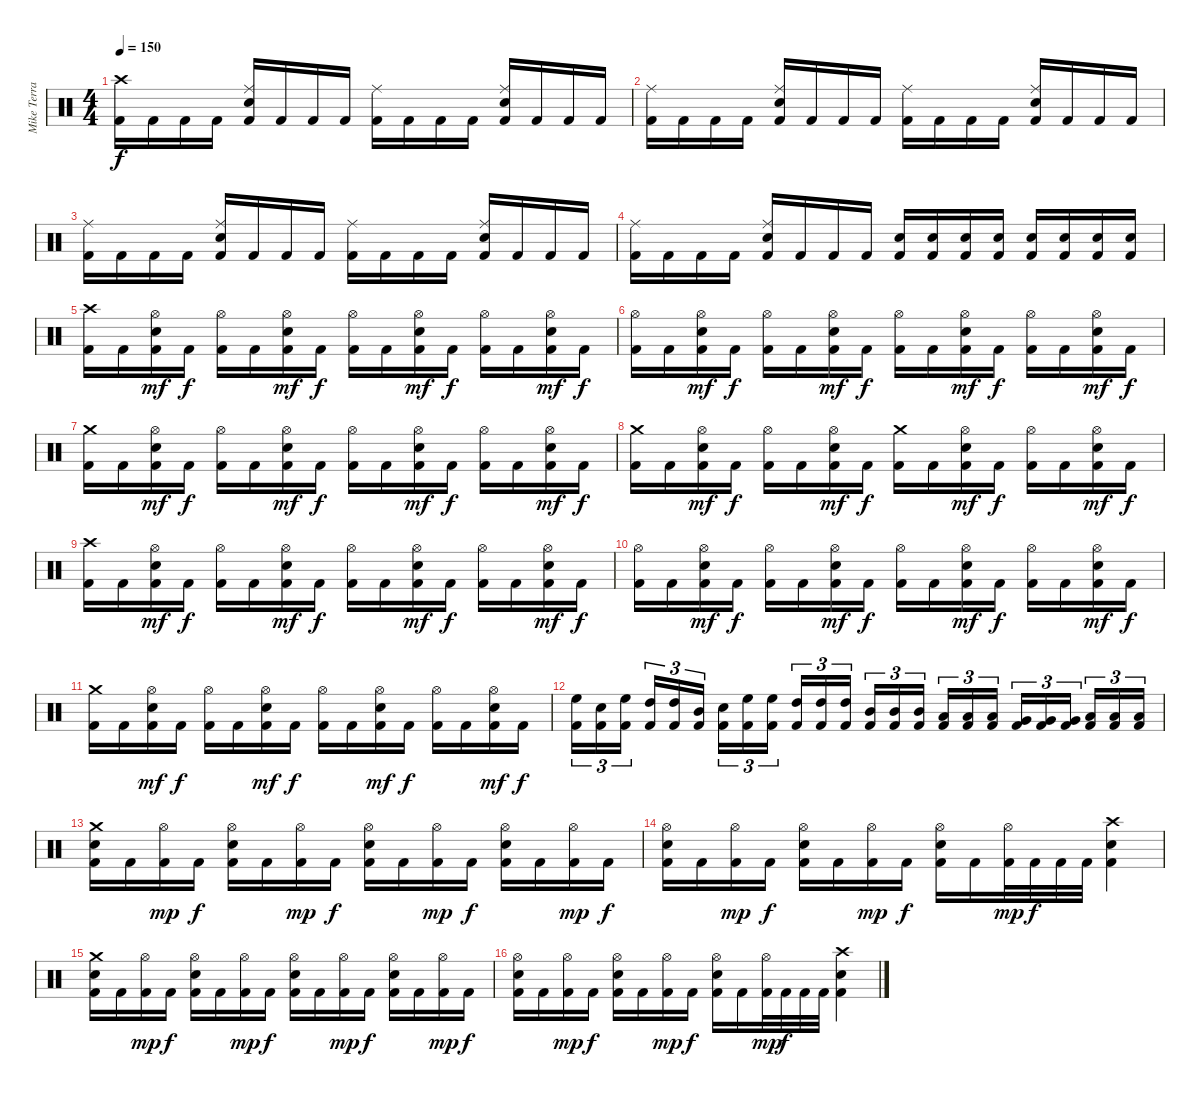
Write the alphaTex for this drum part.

\track ("Mike Terrana" "Mike Terra") {instrument percussion}
\staff {score}
\articulation defaults
\ts (4 4)
\tempo 150
\clef neutral
\ks c
("Crash high (hit)" "Kick (hit) 2").16{dy f} "Kick (hit) 2".16 "Kick (hit) 2".16 "Kick (hit) 2".16 ("Ride (middle)" "Electric Snare (hit)" "Kick (hit) 2").16 "Kick (hit) 2".16 "Kick (hit) 2".16 "Kick (hit) 2".16 ("Ride (middle)" "Kick (hit) 2").16 "Kick (hit) 2".16 "Kick (hit) 2".16 "Kick (hit) 2".16 ("Ride (middle)" "Electric Snare (hit)" "Kick (hit) 2").16 "Kick (hit) 2".16 "Kick (hit) 2".16 "Kick (hit) 2".16 |
("Ride (middle)" "Kick (hit) 2").16 "Kick (hit) 2".16 "Kick (hit) 2".16 "Kick (hit) 2".16 ("Ride (middle)" "Electric Snare (hit)" "Kick (hit) 2").16 "Kick (hit) 2".16 "Kick (hit) 2".16 "Kick (hit) 2".16 ("Ride (middle)" "Kick (hit) 2").16 "Kick (hit) 2".16 "Kick (hit) 2".16 "Kick (hit) 2".16 ("Ride (middle)" "Electric Snare (hit)" "Kick (hit) 2").16 "Kick (hit) 2".16 "Kick (hit) 2".16 "Kick (hit) 2".16 |
("Ride (middle)" "Kick (hit) 2").16 "Kick (hit) 2".16 "Kick (hit) 2".16 "Kick (hit) 2".16 ("Ride (middle)" "Electric Snare (hit)" "Kick (hit) 2").16 "Kick (hit) 2".16 "Kick (hit) 2".16 "Kick (hit) 2".16 ("Ride (middle)" "Kick (hit) 2").16 "Kick (hit) 2".16 "Kick (hit) 2".16 "Kick (hit) 2".16 ("Ride (middle)" "Electric Snare (hit)" "Kick (hit) 2").16 "Kick (hit) 2".16 "Kick (hit) 2".16 "Kick (hit) 2".16 |
("Ride (middle)" "Kick (hit) 2").16 "Kick (hit) 2".16 "Kick (hit) 2".16 "Kick (hit) 2".16 ("Ride (middle)" "Electric Snare (hit)" "Kick (hit) 2").16 "Kick (hit) 2".16 "Kick (hit) 2".16 "Kick (hit) 2".16 ("Electric Snare (hit)" "Kick (hit) 2").16 ("Electric Snare (hit)" "Kick (hit) 2").16 ("Electric Snare (hit)" "Kick (hit) 2").16 ("Electric Snare (hit)" "Kick (hit) 2").16 ("Electric Snare (hit)" "Kick (hit) 2").16 ("Electric Snare (hit)" "Kick (hit) 2").16 ("Electric Snare (hit)" "Kick (hit) 2").16 ("Electric Snare (hit)" "Kick (hit) 2").16 |
("Crash high (hit)" "Kick (hit) 2").16 "Kick (hit) 2".16 ("Hi-Hat (open)" "Electric Snare (hit)" "Kick (hit) 2").16{dy mf} "Kick (hit) 2".16{dy f} ("Hi-Hat (open)" "Kick (hit) 2").16 "Kick (hit) 2".16 ("Hi-Hat (open)" "Electric Snare (hit)" "Kick (hit) 2").16{dy mf} "Kick (hit) 2".16{dy f} ("Hi-Hat (open)" "Kick (hit) 2").16 "Kick (hit) 2".16 ("Hi-Hat (open)" "Electric Snare (hit)" "Kick (hit) 2").16{dy mf} "Kick (hit) 2".16{dy f} ("Hi-Hat (open)" "Kick (hit) 2").16 "Kick (hit) 2".16 ("Hi-Hat (open)" "Electric Snare (hit)" "Kick (hit) 2").16{dy mf} "Kick (hit) 2".16{dy f} |
("Hi-Hat (open)" "Kick (hit) 2").16 "Kick (hit) 2".16 ("Hi-Hat (open)" "Electric Snare (hit)" "Kick (hit) 2").16{dy mf} "Kick (hit) 2".16{dy f} ("Hi-Hat (open)" "Kick (hit) 2").16 "Kick (hit) 2".16 ("Hi-Hat (open)" "Electric Snare (hit)" "Kick (hit) 2").16{dy mf} "Kick (hit) 2".16{dy f} ("Hi-Hat (open)" "Kick (hit) 2").16 "Kick (hit) 2".16 ("Hi-Hat (open)" "Electric Snare (hit)" "Kick (hit) 2").16{dy mf} "Kick (hit) 2".16{dy f} ("Hi-Hat (open)" "Kick (hit) 2").16 "Kick (hit) 2".16 ("Hi-Hat (open)" "Electric Snare (hit)" "Kick (hit) 2").16{dy mf} "Kick (hit) 2".16{dy f} |
("Crash medium (hit)" "Kick (hit) 2").16 "Kick (hit) 2".16 ("Hi-Hat (open)" "Electric Snare (hit)" "Kick (hit) 2").16{dy mf} "Kick (hit) 2".16{dy f} ("Hi-Hat (open)" "Kick (hit) 2").16 "Kick (hit) 2".16 ("Hi-Hat (open)" "Electric Snare (hit)" "Kick (hit) 2").16{dy mf} "Kick (hit) 2".16{dy f} ("Hi-Hat (open)" "Kick (hit) 2").16 "Kick (hit) 2".16 ("Hi-Hat (open)" "Electric Snare (hit)" "Kick (hit) 2").16{dy mf} "Kick (hit) 2".16{dy f} ("Hi-Hat (open)" "Kick (hit) 2").16 "Kick (hit) 2".16 ("Hi-Hat (open)" "Electric Snare (hit)" "Kick (hit) 2").16{dy mf} "Kick (hit) 2".16{dy f} |
("Crash medium (hit)" "Kick (hit) 2").16 "Kick (hit) 2".16 ("Hi-Hat (open)" "Electric Snare (hit)" "Kick (hit) 2").16{dy mf} "Kick (hit) 2".16{dy f} ("Hi-Hat (open)" "Kick (hit) 2").16 "Kick (hit) 2".16 ("Hi-Hat (open)" "Electric Snare (hit)" "Kick (hit) 2").16{dy mf} "Kick (hit) 2".16{dy f} ("Crash medium (hit)" "Kick (hit) 2").16 "Kick (hit) 2".16 ("Hi-Hat (open)" "Electric Snare (hit)" "Kick (hit) 2").16{dy mf} "Kick (hit) 2".16{dy f} ("Hi-Hat (open)" "Kick (hit) 2").16 "Kick (hit) 2".16 ("Hi-Hat (open)" "Electric Snare (hit)" "Kick (hit) 2").16{dy mf} "Kick (hit) 2".16{dy f} |
("Crash high (hit)" "Kick (hit) 2").16 "Kick (hit) 2".16 ("Hi-Hat (open)" "Electric Snare (hit)" "Kick (hit) 2").16{dy mf} "Kick (hit) 2".16{dy f} ("Hi-Hat (open)" "Kick (hit) 2").16 "Kick (hit) 2".16 ("Hi-Hat (open)" "Electric Snare (hit)" "Kick (hit) 2").16{dy mf} "Kick (hit) 2".16{dy f} ("Hi-Hat (open)" "Kick (hit) 2").16 "Kick (hit) 2".16 ("Hi-Hat (open)" "Electric Snare (hit)" "Kick (hit) 2").16{dy mf} "Kick (hit) 2".16{dy f} ("Hi-Hat (open)" "Kick (hit) 2").16 "Kick (hit) 2".16 ("Hi-Hat (open)" "Electric Snare (hit)" "Kick (hit) 2").16{dy mf} "Kick (hit) 2".16{dy f} |
("Hi-Hat (open)" "Kick (hit) 2").16 "Kick (hit) 2".16 ("Hi-Hat (open)" "Electric Snare (hit)" "Kick (hit) 2").16{dy mf} "Kick (hit) 2".16{dy f} ("Hi-Hat (open)" "Kick (hit) 2").16 "Kick (hit) 2".16 ("Hi-Hat (open)" "Electric Snare (hit)" "Kick (hit) 2").16{dy mf} "Kick (hit) 2".16{dy f} ("Hi-Hat (open)" "Kick (hit) 2").16 "Kick (hit) 2".16 ("Hi-Hat (open)" "Electric Snare (hit)" "Kick (hit) 2").16{dy mf} "Kick (hit) 2".16{dy f} ("Hi-Hat (open)" "Kick (hit) 2").16 "Kick (hit) 2".16 ("Hi-Hat (open)" "Electric Snare (hit)" "Kick (hit) 2").16{dy mf} "Kick (hit) 2".16{dy f} |
("Crash medium (hit)" "Kick (hit) 2").16 "Kick (hit) 2".16 ("Hi-Hat (open)" "Electric Snare (hit)" "Kick (hit) 2").16{dy mf} "Kick (hit) 2".16{dy f} ("Hi-Hat (open)" "Kick (hit) 2").16 "Kick (hit) 2".16 ("Hi-Hat (open)" "Electric Snare (hit)" "Kick (hit) 2").16{dy mf} "Kick (hit) 2".16{dy f} ("Hi-Hat (open)" "Kick (hit) 2").16 "Kick (hit) 2".16 ("Hi-Hat (open)" "Electric Snare (hit)" "Kick (hit) 2").16{dy mf} "Kick (hit) 2".16{dy f} ("Hi-Hat (open)" "Kick (hit) 2").16 "Kick (hit) 2".16 ("Hi-Hat (open)" "Electric Snare (hit)" "Kick (hit) 2").16{dy mf} "Kick (hit) 2".16{dy f} |
("High Floor Tom (hit)" "Kick (hit) 2").16{tu (3 2)} ("Electric Snare (hit)" "Kick (hit) 2").16{tu (3 2)} ("High Floor Tom (hit)" "Kick (hit) 2").16{tu (3 2)} ("High Tom (hit)" "Kick (hit) 2").16{tu (3 2)} ("High Tom (hit)" "Kick (hit) 2").16{tu (3 2)} ("Mid Tom (hit)" "Kick (hit) 2").16{tu (3 2)} ("Electric Snare (hit)" "Kick (hit) 2").16{tu (3 2)} ("High Floor Tom (hit)" "Kick (hit) 2").16{tu (3 2)} ("High Floor Tom (hit)" "Kick (hit) 2").16{tu (3 2)} ("High Tom (hit)" "Kick (hit) 2").16{tu (3 2)} ("High Tom (hit)" "Kick (hit) 2").16{tu (3 2)} ("High Tom (hit)" "Kick (hit) 2").16{tu (3 2)} ("Mid Tom (hit)" "Kick (hit) 2").16{tu (3 2)} ("Mid Tom (hit)" "Kick (hit) 2").16{tu (3 2)} ("Mid Tom (hit)" "Kick (hit) 2").16{tu (3 2)} ("Low Tom (hit)" "Kick (hit) 2").16{tu (3 2)} ("Low Tom (hit)" "Kick (hit) 2").16{tu (3 2)} ("Low Tom (hit)" "Kick (hit) 2").16{tu (3 2)} ("Very Low Tom (hit)" "Kick (hit) 2").16{tu (3 2)} ("Very Low Tom (hit)" "Kick (hit) 2").16{tu (3 2)} ("Very Low Tom (hit)" "Kick (hit) 2").16{tu (3 2)} ("Low Floor Tom (hit)" "Kick (hit) 2").16{tu (3 2)} ("Low Floor Tom (hit)" "Kick (hit) 2").16{tu (3 2)} ("Low Floor Tom (hit)" "Kick (hit) 2").16{tu (3 2)} |
("Crash medium (hit)" "Electric Snare (hit)" "Kick (hit) 2").16 "Kick (hit) 2".16 ("Hi-Hat (open)" "Kick (hit) 2").16{dy mp} "Kick (hit) 2".16{dy f} ("Hi-Hat (open)" "Electric Snare (hit)" "Kick (hit) 2").16 "Kick (hit) 2".16 ("Hi-Hat (open)" "Kick (hit) 2").16{dy mp} "Kick (hit) 2".16{dy f} ("Hi-Hat (open)" "Electric Snare (hit)" "Kick (hit) 2").16 "Kick (hit) 2".16 ("Hi-Hat (open)" "Kick (hit) 2").16{dy mp} "Kick (hit) 2".16{dy f} ("Hi-Hat (open)" "Electric Snare (hit)" "Kick (hit) 2").16 "Kick (hit) 2".16 ("Hi-Hat (open)" "Kick (hit) 2").16{dy mp} "Kick (hit) 2".16{dy f} |
("Hi-Hat (open)" "Electric Snare (hit)" "Kick (hit) 2").16 "Kick (hit) 2".16 ("Hi-Hat (open)" "Kick (hit) 2").16{dy mp} "Kick (hit) 2".16{dy f} ("Hi-Hat (open)" "Electric Snare (hit)" "Kick (hit) 2").16 "Kick (hit) 2".16 ("Hi-Hat (open)" "Kick (hit) 2").16{dy mp} "Kick (hit) 2".16{dy f} ("Hi-Hat (open)" "Electric Snare (hit)" "Kick (hit) 2").16 "Kick (hit) 2".16 ("Hi-Hat (open)" "Kick (hit) 2").32{dy mp} "Kick (hit) 2".32{dy f} "Kick (hit) 2".32 "Kick (hit) 2".32 ("Crash high (hit)" "Electric Snare (hit)" "Kick (hit) 2").4 |
("Crash medium (hit)" "Electric Snare (hit)" "Kick (hit) 2").16 "Kick (hit) 2".16 ("Hi-Hat (open)" "Kick (hit) 2").16{dy mp} "Kick (hit) 2".16{dy f} ("Hi-Hat (open)" "Electric Snare (hit)" "Kick (hit) 2").16 "Kick (hit) 2".16 ("Hi-Hat (open)" "Kick (hit) 2").16{dy mp} "Kick (hit) 2".16{dy f} ("Hi-Hat (open)" "Electric Snare (hit)" "Kick (hit) 2").16 "Kick (hit) 2".16 ("Hi-Hat (open)" "Kick (hit) 2").16{dy mp} "Kick (hit) 2".16{dy f} ("Hi-Hat (open)" "Electric Snare (hit)" "Kick (hit) 2").16 "Kick (hit) 2".16 ("Hi-Hat (open)" "Kick (hit) 2").16{dy mp} "Kick (hit) 2".16{dy f} |
("Hi-Hat (open)" "Electric Snare (hit)" "Kick (hit) 2").16 "Kick (hit) 2".16 ("Hi-Hat (open)" "Kick (hit) 2").16{dy mp} "Kick (hit) 2".16{dy f} ("Hi-Hat (open)" "Electric Snare (hit)" "Kick (hit) 2").16 "Kick (hit) 2".16 ("Hi-Hat (open)" "Kick (hit) 2").16{dy mp} "Kick (hit) 2".16{dy f} ("Hi-Hat (open)" "Electric Snare (hit)" "Kick (hit) 2").16 "Kick (hit) 2".16 ("Hi-Hat (open)" "Kick (hit) 2").32{dy mp} "Kick (hit) 2".32{dy f} "Kick (hit) 2".32 "Kick (hit) 2".32 ("Crash high (hit)" "Electric Snare (hit)" "Kick (hit) 2").4
